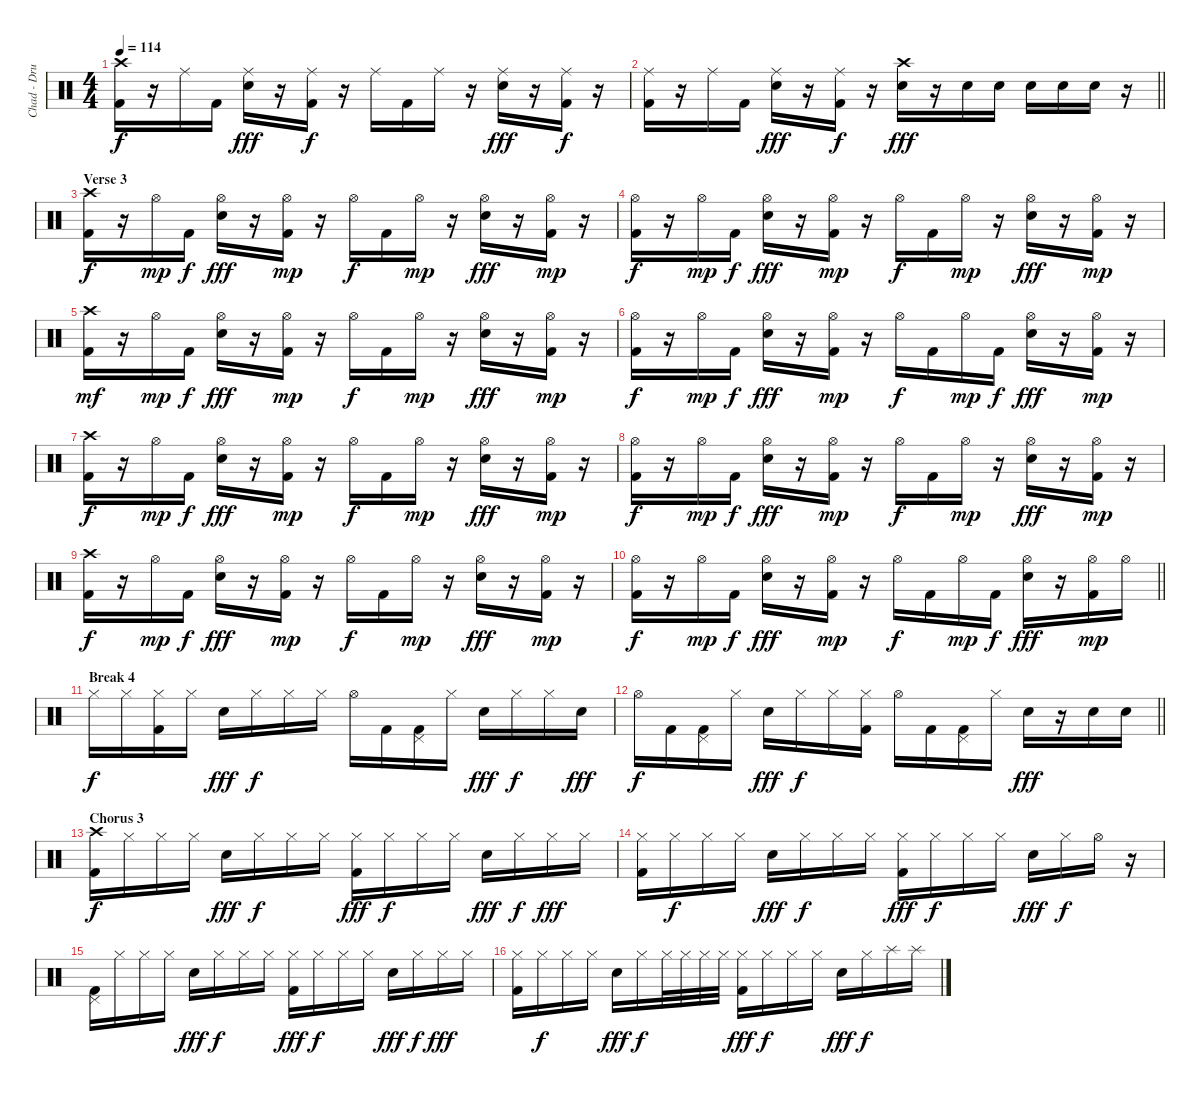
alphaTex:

\track ("Chad - Drums" "Chad - Dru") {instrument percussion}
\staff {score}
\articulation defaults
\ts (4 4)
\tempo 114
\clef neutral
\ks c
("Crash high (hit)" "Kick (hit) 2").16{dy f} r.16 "Ride (middle)".16 "Kick (hit) 2".16 ("Ride (middle)" "Electric Snare (hit)").16{dy fff} r.16 ("Ride (middle)" "Kick (hit) 2").16{dy f} r.16 "Ride (middle)".16 "Kick (hit) 2".16 "Ride (middle)".16 r.16 ("Ride (middle)" "Electric Snare (hit)").16{dy fff} r.16 ("Ride (middle)" "Kick (hit) 2").16{dy f} r.16 |
\barLineRight lightlight
("Ride (middle)" "Kick (hit) 2").16 r.16 "Ride (middle)".16 "Kick (hit) 2".16 ("Ride (middle)" "Electric Snare (hit)").16{dy fff} r.16 ("Ride (middle)" "Kick (hit) 2").16{dy f} r.16 ("Crash high (hit)" "Electric Snare (hit)").16{dy fff} r.16 "Electric Snare (hit)".16 "Electric Snare (hit)".16 "Electric Snare (hit)".16 "Electric Snare (hit)".16 "Electric Snare (hit)".16 r.16 |
\section ("" "Verse 3")
("Crash high (hit)" "Kick (hit) 2").16{dy f} r.16 "Hi-Hat (open)".16{dy mp} "Kick (hit) 2".16{dy f} ("Hi-Hat (open)" "Electric Snare (hit)").16{dy fff} r.16 ("Hi-Hat (open)" "Kick (hit) 2").16{dy mp} r.16 "Hi-Hat (open)".16{dy f} "Kick (hit) 2".16 "Hi-Hat (open)".16{dy mp} r.16 ("Hi-Hat (open)" "Electric Snare (hit)").16{dy fff} r.16 ("Hi-Hat (open)" "Kick (hit) 2").16{dy mp} r.16 |
("Hi-Hat (open)" "Kick (hit) 2").16{dy f} r.16 "Hi-Hat (open)".16{dy mp} "Kick (hit) 2".16{dy f} ("Hi-Hat (open)" "Electric Snare (hit)").16{dy fff} r.16 ("Hi-Hat (open)" "Kick (hit) 2").16{dy mp} r.16 "Hi-Hat (open)".16{dy f} "Kick (hit) 2".16 "Hi-Hat (open)".16{dy mp} r.16 ("Hi-Hat (open)" "Electric Snare (hit)").16{dy fff} r.16 ("Hi-Hat (open)" "Kick (hit) 2").16{dy mp} r.16 |
("Crash high (hit)" "Kick (hit) 2").16{dy mf} r.16 "Hi-Hat (open)".16{dy mp} "Kick (hit) 2".16{dy f} ("Hi-Hat (open)" "Electric Snare (hit)").16{dy fff} r.16 ("Hi-Hat (open)" "Kick (hit) 2").16{dy mp} r.16 "Hi-Hat (open)".16{dy f} "Kick (hit) 2".16 "Hi-Hat (open)".16{dy mp} r.16 ("Hi-Hat (open)" "Electric Snare (hit)").16{dy fff} r.16 ("Hi-Hat (open)" "Kick (hit) 2").16{dy mp} r.16 |
("Hi-Hat (open)" "Kick (hit) 2").16{dy f} r.16 "Hi-Hat (open)".16{dy mp} "Kick (hit) 2".16{dy f} ("Hi-Hat (open)" "Electric Snare (hit)").16{dy fff} r.16 ("Hi-Hat (open)" "Kick (hit) 2").16{dy mp} r.16 "Hi-Hat (open)".16{dy f} "Kick (hit) 2".16 "Hi-Hat (open)".16{dy mp} "Kick (hit) 2".16{dy f} ("Hi-Hat (open)" "Electric Snare (hit)").16{dy fff} r.16 ("Hi-Hat (open)" "Kick (hit) 2").16{dy mp} r.16 |
("Crash high (hit)" "Kick (hit) 2").16{dy f} r.16 "Hi-Hat (open)".16{dy mp} "Kick (hit) 2".16{dy f} ("Hi-Hat (open)" "Electric Snare (hit)").16{dy fff} r.16 ("Hi-Hat (open)" "Kick (hit) 2").16{dy mp} r.16 "Hi-Hat (open)".16{dy f} "Kick (hit) 2".16 "Hi-Hat (open)".16{dy mp} r.16 ("Hi-Hat (open)" "Electric Snare (hit)").16{dy fff} r.16 ("Hi-Hat (open)" "Kick (hit) 2").16{dy mp} r.16 |
("Hi-Hat (open)" "Kick (hit) 2").16{dy f} r.16 "Hi-Hat (open)".16{dy mp} "Kick (hit) 2".16{dy f} ("Hi-Hat (open)" "Electric Snare (hit)").16{dy fff} r.16 ("Hi-Hat (open)" "Kick (hit) 2").16{dy mp} r.16 "Hi-Hat (open)".16{dy f} "Kick (hit) 2".16 "Hi-Hat (open)".16{dy mp} r.16 ("Hi-Hat (open)" "Electric Snare (hit)").16{dy fff} r.16 ("Hi-Hat (open)" "Kick (hit) 2").16{dy mp} r.16 |
("Crash high (hit)" "Kick (hit) 2").16{dy f} r.16 "Hi-Hat (open)".16{dy mp} "Kick (hit) 2".16{dy f} ("Hi-Hat (open)" "Electric Snare (hit)").16{dy fff} r.16 ("Hi-Hat (open)" "Kick (hit) 2").16{dy mp} r.16 "Hi-Hat (open)".16{dy f} "Kick (hit) 2".16 "Hi-Hat (open)".16{dy mp} r.16 ("Hi-Hat (open)" "Electric Snare (hit)").16{dy fff} r.16 ("Hi-Hat (open)" "Kick (hit) 2").16{dy mp} r.16 |
\barLineRight lightlight
("Hi-Hat (open)" "Kick (hit) 2").16{dy f} r.16 "Hi-Hat (open)".16{dy mp} "Kick (hit) 2".16{dy f} ("Hi-Hat (open)" "Electric Snare (hit)").16{dy fff} r.16 ("Hi-Hat (open)" "Kick (hit) 2").16{dy mp} r.16 "Hi-Hat (open)".16{dy f} "Kick (hit) 2".16 "Hi-Hat (open)".16{dy mp} "Kick (hit) 2".16{dy f} ("Hi-Hat (open)" "Electric Snare (hit)").16{dy fff} r.16 ("Hi-Hat (open)" "Kick (hit) 2").16{dy mp} "Hi-Hat (open)".16 |
\section ("" "Break 4")
"Hi-Hat (closed)".16{dy f} "Hi-Hat (closed)".16 ("Hi-Hat (closed)" "Kick (hit) 2").16 "Hi-Hat (closed)".16 "Electric Snare (hit)".16{dy fff} "Hi-Hat (closed)".16{dy f} "Hi-Hat (closed)".16 "Hi-Hat (closed)".16 "Hi-Hat (open)".16 "Kick (hit) 2".16 ("Pedal Hi-Hat (hit)" "Kick (hit) 2").16 "Hi-Hat (closed)".16 "Electric Snare (hit)".16{dy fff} "Hi-Hat (closed)".16{dy f} "Hi-Hat (closed)".16 "Electric Snare (hit)".16{dy fff} |
\barLineRight lightlight "Hi-Hat (open)".16{dy f} "Kick (hit) 2".16
("Pedal Hi-Hat (hit)" "Kick (hit) 2").16 "Hi-Hat (closed)".16 "Electric Snare (hit)".16{dy fff} "Hi-Hat (closed)".16{dy f} "Hi-Hat (closed)".16 ("Hi-Hat (closed)" "Kick (hit) 2").16 "Hi-Hat (open)".16 "Kick (hit) 2".16 ("Pedal Hi-Hat (hit)" "Kick (hit) 2").16 "Hi-Hat (closed)".16 "Electric Snare (hit)".16{dy fff} r.16 "Electric Snare (hit)".16 "Electric Snare (hit)".16 |
\section ("" "Chorus 3")
("Crash high (hit)" "Kick (hit) 2").16{dy f} "Hi-Hat (closed)".16 "Hi-Hat (closed)".16 "Hi-Hat (closed)".16 "Electric Snare (hit)".16{dy fff} "Hi-Hat (closed)".16{dy f} "Hi-Hat (closed)".16 "Hi-Hat (closed)".16 ("Hi-Hat (closed)" "Kick (hit) 2").16{dy fff} "Hi-Hat (closed)".16{dy f} "Hi-Hat (closed)".16 "Hi-Hat (closed)".16 "Electric Snare (hit)".16{dy fff} "Hi-Hat (closed)".16{dy f} "Hi-Hat (closed)".16{dy fff} "Hi-Hat (closed)".16 |
("Hi-Hat (closed)" "Kick (hit) 2").16 "Hi-Hat (closed)".16{dy f} "Hi-Hat (closed)".16 "Hi-Hat (closed)".16 "Electric Snare (hit)".16{dy fff} "Hi-Hat (closed)".16{dy f} "Hi-Hat (closed)".16 "Hi-Hat (closed)".16 ("Hi-Hat (closed)" "Kick (hit) 2").16{dy fff} "Hi-Hat (closed)".16{dy f} "Hi-Hat (closed)".16 "Hi-Hat (closed)".16 "Electric Snare (hit)".16{dy fff} "Hi-Hat (closed)".16{dy f} "Hi-Hat (open)".16 r.16 |
("Pedal Hi-Hat (hit)" "Kick (hit) 2").16 "Hi-Hat (closed)".16 "Hi-Hat (closed)".16 "Hi-Hat (closed)".16 "Electric Snare (hit)".16{dy fff} "Hi-Hat (closed)".16{dy f} "Hi-Hat (closed)".16 "Hi-Hat (closed)".16 ("Hi-Hat (closed)" "Kick (hit) 2").16{dy fff} "Hi-Hat (closed)".16{dy f} "Hi-Hat (closed)".16 "Hi-Hat (closed)".16 "Electric Snare (hit)".16{dy fff} "Hi-Hat (closed)".16{dy f} "Hi-Hat (closed)".16{dy fff} "Hi-Hat (closed)".16 |
("Hi-Hat (closed)" "Kick (hit) 2").16 "Hi-Hat (closed)".16{dy f} "Hi-Hat (closed)".16 "Hi-Hat (closed)".16 "Electric Snare (hit)".16{dy fff} "Hi-Hat (closed)".16{dy f} "Hi-Hat (closed)".32 "Hi-Hat (closed)".32 "Hi-Hat (closed)".32 "Hi-Hat (closed)".32 ("Hi-Hat (closed)" "Kick (hit) 2").16{dy fff} "Hi-Hat (closed)".16{dy f} "Hi-Hat (closed)".16 "Hi-Hat (closed)".16 "Electric Snare (hit)".16{dy fff} "Hi-Hat (closed)".16{dy f} "Splash (hit)".16 "Splash (hit)".16
